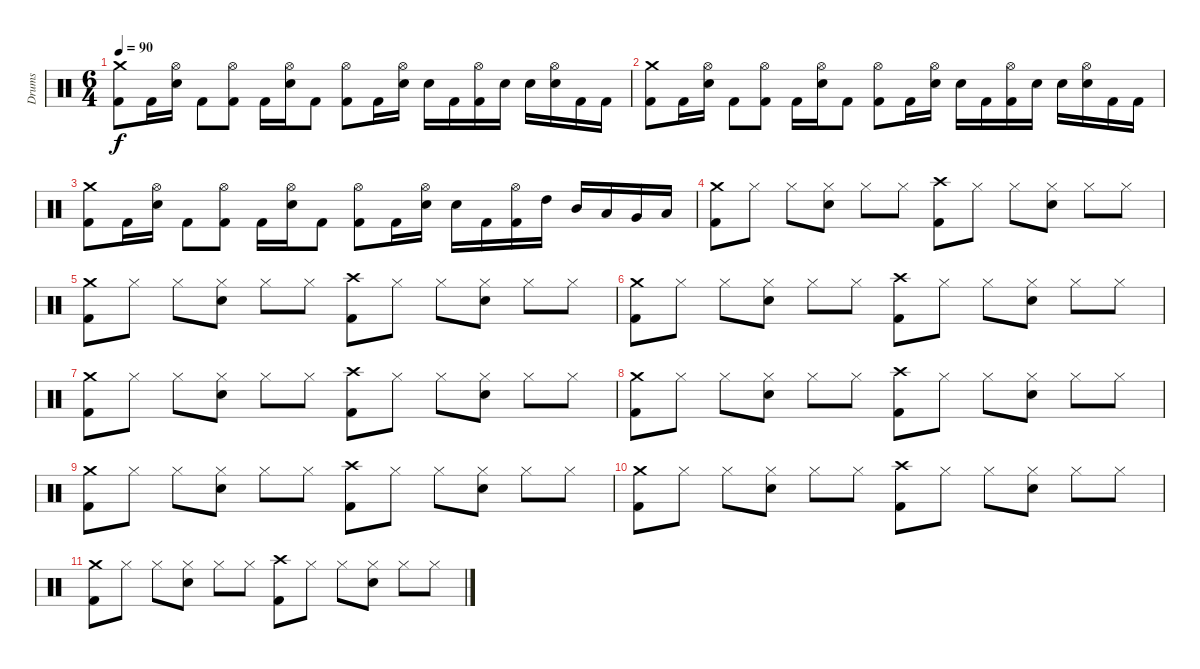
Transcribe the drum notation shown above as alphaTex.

\track ("Drums" "Drums") {instrument percussion}
\staff {score}
\articulation defaults
\ts (6 4)
\tempo 90
\clef neutral
\ks c
("Crash medium (hit)" "Kick (hit) 2").8{dy f} "Kick (hit) 2".16 ("Hi-Hat (open)" "Electric Snare (hit)").16 "Kick (hit) 2".8 ("Hi-Hat (open)" "Kick (hit) 2").8 "Kick (hit) 2".16 ("Hi-Hat (open)" "Electric Snare (hit)").16 "Kick (hit) 2".8 ("Hi-Hat (open)" "Kick (hit) 2").8 "Kick (hit) 2".16 ("Hi-Hat (open)" "Electric Snare (hit)").16 "Electric Snare (hit)".16 "Kick (hit) 2".16 ("Hi-Hat (open)" "Kick (hit) 2").16 "Electric Snare (hit)".16 "Electric Snare (hit)".16 ("Hi-Hat (open)" "Electric Snare (hit)").16 "Kick (hit) 2".16 "Kick (hit) 2".16 |
("Crash medium (hit)" "Kick (hit) 2").8 "Kick (hit) 2".16 ("Hi-Hat (open)" "Electric Snare (hit)").16 "Kick (hit) 2".8 ("Hi-Hat (open)" "Kick (hit) 2").8 "Kick (hit) 2".16 ("Hi-Hat (open)" "Electric Snare (hit)").16 "Kick (hit) 2".8 ("Hi-Hat (open)" "Kick (hit) 2").8 "Kick (hit) 2".16 ("Hi-Hat (open)" "Electric Snare (hit)").16 "Electric Snare (hit)".16 "Kick (hit) 2".16 ("Hi-Hat (open)" "Kick (hit) 2").16 "Electric Snare (hit)".16 "Electric Snare (hit)".16 ("Hi-Hat (open)" "Electric Snare (hit)").16 "Kick (hit) 2".16 "Kick (hit) 2".16 |
("Crash medium (hit)" "Kick (hit) 2").8 "Kick (hit) 2".16 ("Hi-Hat (open)" "Electric Snare (hit)").16 "Kick (hit) 2".8 ("Hi-Hat (open)" "Kick (hit) 2").8 "Kick (hit) 2".16 ("Hi-Hat (open)" "Electric Snare (hit)").16 "Kick (hit) 2".8 ("Hi-Hat (open)" "Kick (hit) 2").8 "Kick (hit) 2".16 ("Hi-Hat (open)" "Electric Snare (hit)").16 "Electric Snare (hit)".16 "Kick (hit) 2".16 ("Hi-Hat (open)" "Kick (hit) 2").16 "High Tom (hit)".16 "Mid Tom (hit)".16 "Low Tom (hit)".16 "Very Low Tom (hit)".16 "Low Floor Tom (hit)".16 |
("Crash medium (hit)" "Kick (hit) 2").8 "Hi-Hat (closed)".8 "Hi-Hat (closed)".8 ("Hi-Hat (closed)" "Electric Snare (hit)").8 "Hi-Hat (closed)".8 "Hi-Hat (closed)".8 ("Crash high (hit)" "Kick (hit) 2").8 "Hi-Hat (closed)".8 "Hi-Hat (closed)".8 ("Hi-Hat (closed)" "Electric Snare (hit)").8 "Hi-Hat (closed)".8 "Hi-Hat (closed)".8 |
("Crash medium (hit)" "Kick (hit) 2").8 "Hi-Hat (closed)".8 "Hi-Hat (closed)".8 ("Hi-Hat (closed)" "Electric Snare (hit)").8 "Hi-Hat (closed)".8 "Hi-Hat (closed)".8 ("Crash high (hit)" "Kick (hit) 2").8 "Hi-Hat (closed)".8 "Hi-Hat (closed)".8 ("Hi-Hat (closed)" "Electric Snare (hit)").8 "Hi-Hat (closed)".8 "Hi-Hat (closed)".8 |
("Crash medium (hit)" "Kick (hit) 2").8 "Hi-Hat (closed)".8 "Hi-Hat (closed)".8 ("Hi-Hat (closed)" "Electric Snare (hit)").8 "Hi-Hat (closed)".8 "Hi-Hat (closed)".8 ("Crash high (hit)" "Kick (hit) 2").8 "Hi-Hat (closed)".8 "Hi-Hat (closed)".8 ("Hi-Hat (closed)" "Electric Snare (hit)").8 "Hi-Hat (closed)".8 "Hi-Hat (closed)".8 |
("Crash medium (hit)" "Kick (hit) 2").8 "Hi-Hat (closed)".8 "Hi-Hat (closed)".8 ("Hi-Hat (closed)" "Electric Snare (hit)").8 "Hi-Hat (closed)".8 "Hi-Hat (closed)".8 ("Crash high (hit)" "Kick (hit) 2").8 "Hi-Hat (closed)".8 "Hi-Hat (closed)".8 ("Hi-Hat (closed)" "Electric Snare (hit)").8 "Hi-Hat (closed)".8 "Hi-Hat (closed)".8 |
("Crash medium (hit)" "Kick (hit) 2").8 "Hi-Hat (closed)".8 "Hi-Hat (closed)".8 ("Hi-Hat (closed)" "Electric Snare (hit)").8 "Hi-Hat (closed)".8 "Hi-Hat (closed)".8 ("Crash high (hit)" "Kick (hit) 2").8 "Hi-Hat (closed)".8 "Hi-Hat (closed)".8 ("Hi-Hat (closed)" "Electric Snare (hit)").8 "Hi-Hat (closed)".8 "Hi-Hat (closed)".8 |
("Crash medium (hit)" "Kick (hit) 2").8 "Hi-Hat (closed)".8 "Hi-Hat (closed)".8 ("Hi-Hat (closed)" "Electric Snare (hit)").8 "Hi-Hat (closed)".8 "Hi-Hat (closed)".8 ("Crash high (hit)" "Kick (hit) 2").8 "Hi-Hat (closed)".8 "Hi-Hat (closed)".8 ("Hi-Hat (closed)" "Electric Snare (hit)").8 "Hi-Hat (closed)".8 "Hi-Hat (closed)".8 |
("Crash medium (hit)" "Kick (hit) 2").8{volume 0} "Hi-Hat (closed)".8 "Hi-Hat (closed)".8 ("Hi-Hat (closed)" "Electric Snare (hit)").8 "Hi-Hat (closed)".8 "Hi-Hat (closed)".8 ("Crash high (hit)" "Kick (hit) 2").8 "Hi-Hat (closed)".8 "Hi-Hat (closed)".8 ("Hi-Hat (closed)" "Electric Snare (hit)").8 "Hi-Hat (closed)".8 "Hi-Hat (closed)".8 |
("Crash medium (hit)" "Kick (hit) 2").8 "Hi-Hat (closed)".8 "Hi-Hat (closed)".8 ("Hi-Hat (closed)" "Electric Snare (hit)").8 "Hi-Hat (closed)".8 "Hi-Hat (closed)".8 ("Crash high (hit)" "Kick (hit) 2").8 "Hi-Hat (closed)".8 "Hi-Hat (closed)".8 ("Hi-Hat (closed)" "Electric Snare (hit)").8 "Hi-Hat (closed)".8 "Hi-Hat (closed)".8
